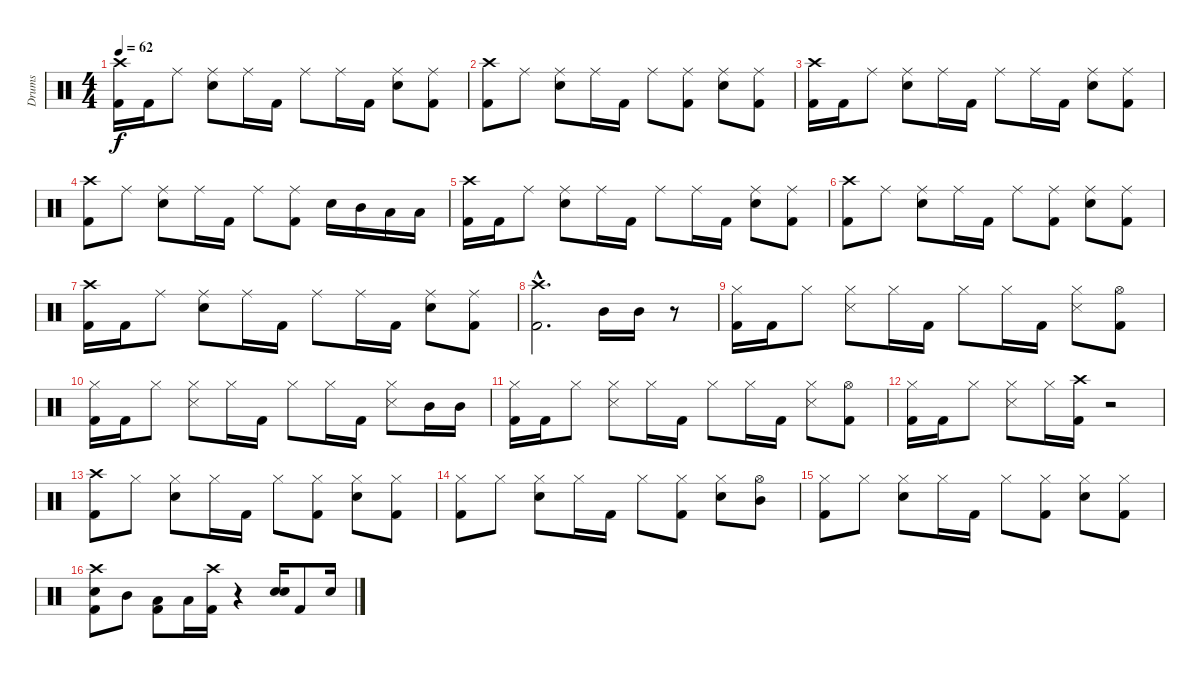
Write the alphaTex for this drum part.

\track ("Drums" "Drums") {instrument percussion}
\staff {score}
\articulation defaults
\ts (4 4)
\tempo 62
\clef neutral
\ks c
("Crash high (hit)" "Kick (hit) 2").16{dy f} "Kick (hit) 2".16 "Ride (middle)".8 ("Ride (middle)" "Snare (hit) 2").8 "Ride (middle)".16 "Kick (hit) 2".16 "Ride (middle)".8 "Ride (middle)".16 "Kick (hit) 2".16 ("Ride (middle)" "Snare (hit) 2").8 ("Ride (middle)" "Kick (hit) 2").8 |
("Crash high (hit)" "Kick (hit) 2").8 "Ride (middle)".8 ("Ride (middle)" "Snare (hit) 2").8 "Ride (middle)".16 "Kick (hit) 2".16 "Ride (middle)".8 ("Ride (middle)" "Kick (hit) 2").8 ("Ride (middle)" "Snare (hit) 2").8 ("Ride (middle)" "Kick (hit) 2").8 |
("Crash high (hit)" "Kick (hit) 2").16 "Kick (hit) 2".16 "Ride (middle)".8 ("Ride (middle)" "Snare (hit) 2").8 "Ride (middle)".16 "Kick (hit) 2".16 "Ride (middle)".8 "Ride (middle)".16 "Kick (hit) 2".16 ("Ride (middle)" "Snare (hit) 2").8 ("Ride (middle)" "Kick (hit) 2").8 |
("Crash high (hit)" "Kick (hit) 2").8 "Ride (middle)".8 ("Ride (middle)" "Snare (hit) 2").8 "Ride (middle)".16 "Kick (hit) 2".16 "Ride (middle)".8 ("Ride (middle)" "Kick (hit) 2").8 "Snare (hit) 2".16 "Mid Tom (hit)".16 "Low Tom (hit)".16 "Low Floor Tom (hit)".16 |
("Crash high (hit)" "Kick (hit) 2").16 "Kick (hit) 2".16 "Ride (middle)".8 ("Ride (middle)" "Snare (hit) 2").8 "Ride (middle)".16 "Kick (hit) 2".16 "Ride (middle)".8 "Ride (middle)".16 "Kick (hit) 2".16 ("Ride (middle)" "Snare (hit) 2").8 ("Ride (middle)" "Kick (hit) 2").8 |
("Crash high (hit)" "Kick (hit) 2").8 "Ride (middle)".8 ("Ride (middle)" "Snare (hit) 2").8 "Ride (middle)".16 "Kick (hit) 2".16 "Ride (middle)".8 ("Ride (middle)" "Kick (hit) 2").8 ("Ride (middle)" "Snare (hit) 2").8 ("Ride (middle)" "Kick (hit) 2").8 |
("Crash high (hit)" "Kick (hit) 2").16 "Kick (hit) 2".16 "Ride (middle)".8 ("Ride (middle)" "Snare (hit) 2").8 "Ride (middle)".16 "Kick (hit) 2".16 "Ride (middle)".8 "Ride (middle)".16 "Kick (hit) 2".16 ("Ride (middle)" "Snare (hit) 2").8 ("Ride (middle)" "Kick (hit) 2").8 |
("Crash high (hit)"{hac} "Kick (hit) 2"{hac}).2{d} "Mid Tom (hit)".16 "Mid Tom (hit)".16 r.8 |
("Hi-Hat (closed)" "Kick (hit) 2").16 "Kick (hit) 2".16 "Hi-Hat (closed)".8 ("Hi-Hat (closed)" "Snare (side stick) 3").8 "Hi-Hat (closed)".16 "Kick (hit) 2".16 "Hi-Hat (closed)".8 "Hi-Hat (closed)".16 "Kick (hit) 2".16 ("Hi-Hat (closed)" "Snare (side stick) 3").8 ("Hi-Hat (open)" "Kick (hit) 2").8 |
("Hi-Hat (closed)" "Kick (hit) 2").16 "Kick (hit) 2".16 "Hi-Hat (closed)".8 ("Hi-Hat (closed)" "Snare (side stick) 3").8 "Hi-Hat (closed)".16 "Kick (hit) 2".16 "Hi-Hat (closed)".8 "Hi-Hat (closed)".16 "Kick (hit) 2".16 ("Hi-Hat (closed)" "Snare (side stick) 3").8 "Mid Tom (hit)".16 "Mid Tom (hit)".16 |
("Hi-Hat (closed)" "Kick (hit) 2").16 "Kick (hit) 2".16 "Hi-Hat (closed)".8 ("Hi-Hat (closed)" "Snare (side stick) 3").8 "Hi-Hat (closed)".16 "Kick (hit) 2".16 "Hi-Hat (closed)".8 "Hi-Hat (closed)".16 "Kick (hit) 2".16 ("Hi-Hat (closed)" "Snare (side stick) 3").8 ("Hi-Hat (open)" "Kick (hit) 2").8 |
("Hi-Hat (closed)" "Kick (hit) 2").16 "Kick (hit) 2".16 "Hi-Hat (closed)".8 ("Hi-Hat (closed)" "Snare (side stick) 3").8 "Hi-Hat (closed)".16 ("Crash high (hit)" "Kick (hit) 2").16 r.2 |
("Crash high (hit)" "Kick (hit) 2").8 "Hi-Hat (closed)".8 ("Hi-Hat (closed)" "Snare (hit) 2").8 "Hi-Hat (closed)".16 "Kick (hit) 2".16 "Hi-Hat (closed)".8 ("Hi-Hat (closed)" "Kick (hit) 2").8 ("Hi-Hat (closed)" "Snare (hit) 2").8 ("Hi-Hat (closed)" "Kick (hit) 2").8 |
("Hi-Hat (closed)" "Kick (hit) 2").8 "Hi-Hat (closed)".8 ("Hi-Hat (closed)" "Snare (hit) 2").8 "Hi-Hat (closed)".16 "Kick (hit) 2".16 "Hi-Hat (closed)".8 ("Hi-Hat (closed)" "Kick (hit) 2").8 ("Hi-Hat (closed)" "Snare (hit) 2").8 ("Hi-Hat (open)" "Mid Tom (hit)").8 |
("Hi-Hat (closed)" "Kick (hit) 2").8 "Hi-Hat (closed)".8 ("Hi-Hat (closed)" "Snare (hit) 2").8 "Hi-Hat (closed)".16 "Kick (hit) 2".16 "Hi-Hat (closed)".8 ("Hi-Hat (closed)" "Kick (hit) 2").8 ("Hi-Hat (closed)" "Snare (hit) 2").8 ("Hi-Hat (closed)" "Kick (hit) 2").8 |
("Crash high (hit)" "Snare (hit) 2" "Kick (hit) 2").8 "Mid Tom (hit)".8 ("Low Tom (hit)" "Kick (hit) 2").8 "Low Floor Tom (hit)".16 ("Crash high (hit)" "Kick (hit) 2").16 r.4 ("Snare (hit) 2" "Snare (hit) 2").16{bd 240} "Kick (hit) 2".8 "Snare (hit) 2".16
